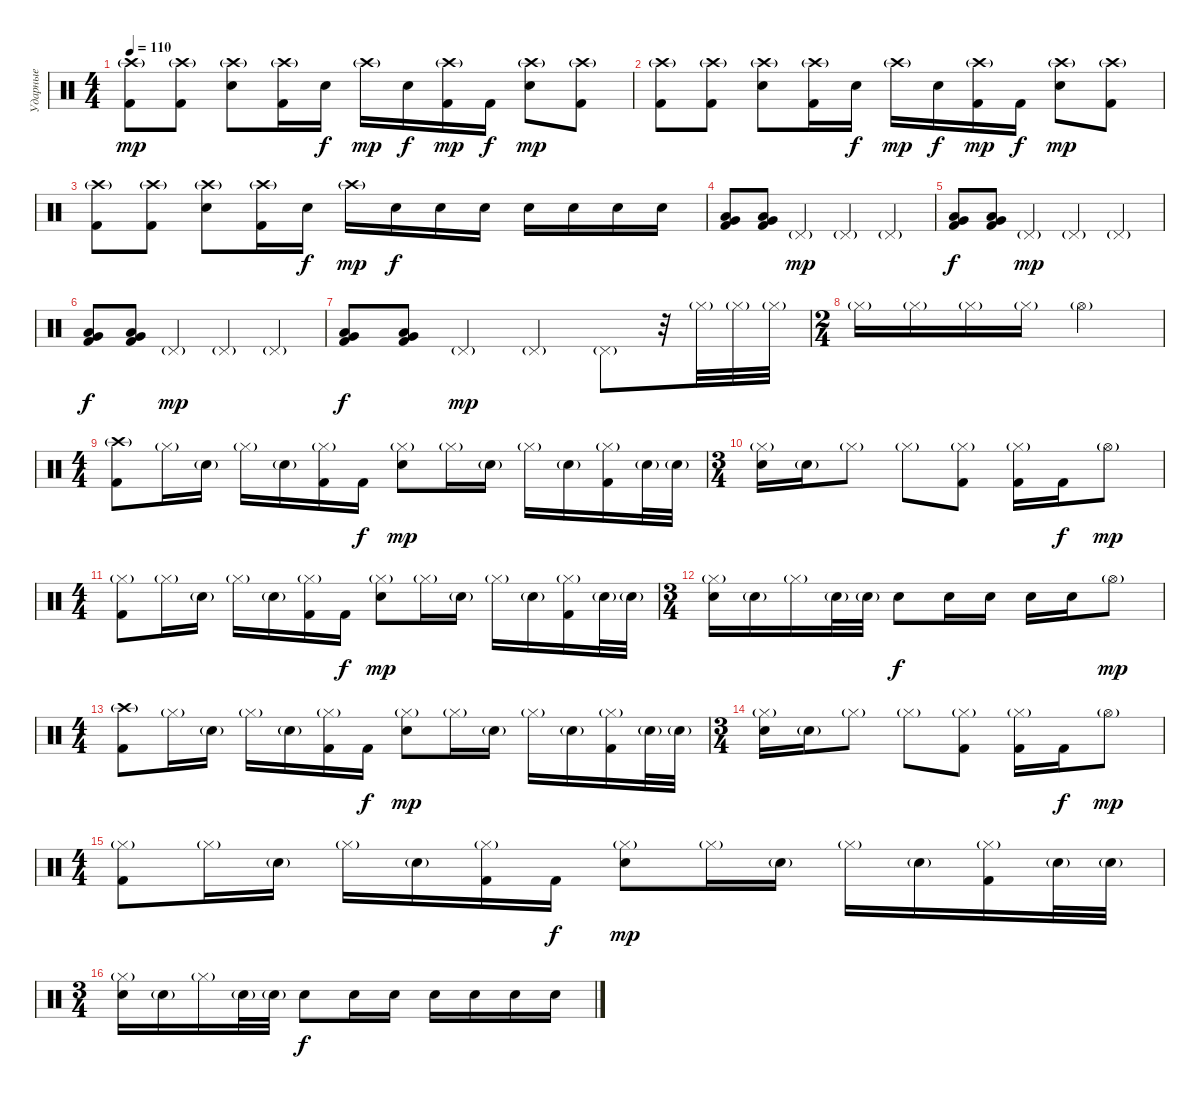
\track ("Ударные" "Ударные") {instrument percussion}
\staff {score}
\articulation defaults
\ts (4 4)
\tempo 110
\clef neutral
\ks c
("Crash high (hit)"{g} "Kick (hit) 2").8{dy mp} ("Crash high (hit)"{g} "Kick (hit) 2").8 ("Crash high (hit)"{g} "Electric Snare (hit)").8 ("Crash high (hit)"{g} "Kick (hit) 2").16 "Electric Snare (hit)".16{dy f} "Crash high (hit)"{g}.16{dy mp} "Electric Snare (hit)".16{dy f} ("Crash high (hit)"{g} "Kick (hit) 2").16{dy mp} "Kick (hit) 2".16{dy f} ("Crash high (hit)"{g} "Electric Snare (hit)").8{dy mp} ("Crash high (hit)"{g} "Kick (hit) 2").8 |
("Crash high (hit)"{g} "Kick (hit) 2").8 ("Crash high (hit)"{g} "Kick (hit) 2").8 ("Crash high (hit)"{g} "Electric Snare (hit)").8 ("Crash high (hit)"{g} "Kick (hit) 2").16 "Electric Snare (hit)".16{dy f} "Crash high (hit)"{g}.16{dy mp} "Electric Snare (hit)".16{dy f} ("Crash high (hit)"{g} "Kick (hit) 2").16{dy mp} "Kick (hit) 2".16{dy f} ("Crash high (hit)"{g} "Electric Snare (hit)").8{dy mp} ("Crash high (hit)"{g} "Kick (hit) 2").8 |
("Crash high (hit)"{g} "Kick (hit) 2").8 ("Crash high (hit)"{g} "Kick (hit) 2").8 ("Crash high (hit)"{g} "Electric Snare (hit)").8 ("Crash high (hit)"{g} "Kick (hit) 2").16 "Electric Snare (hit)".16{dy f} "Crash high (hit)"{g}.16{dy mp} "Electric Snare (hit)".16{dy f} "Electric Snare (hit)".16 "Electric Snare (hit)".16 "Electric Snare (hit)".16 "Electric Snare (hit)".16 "Electric Snare (hit)".16 "Electric Snare (hit)".16 |
("Very Low Tom (hit)" "Low Tom (hit)" "Kick (hit) 2").8 ("Very Low Tom (hit)" "Low Tom (hit)" "Kick (hit) 2").8 "Pedal Hi-Hat (hit)"{g}.4{dy mp} "Pedal Hi-Hat (hit)"{g}.4 "Pedal Hi-Hat (hit)"{g}.4 |
("Very Low Tom (hit)" "Low Tom (hit)" "Kick (hit) 2").8{dy f} ("Very Low Tom (hit)" "Low Tom (hit)" "Kick (hit) 2").8 "Pedal Hi-Hat (hit)"{g}.4{dy mp} "Pedal Hi-Hat (hit)"{g}.4 "Pedal Hi-Hat (hit)"{g}.4 |
("Very Low Tom (hit)" "Low Tom (hit)" "Kick (hit) 2").8{dy f} ("Very Low Tom (hit)" "Low Tom (hit)" "Kick (hit) 2").8 "Pedal Hi-Hat (hit)"{g}.4{dy mp} "Pedal Hi-Hat (hit)"{g}.4 "Pedal Hi-Hat (hit)"{g}.4 |
("Very Low Tom (hit)" "Low Tom (hit)" "Kick (hit) 2").8{dy f} ("Very Low Tom (hit)" "Low Tom (hit)" "Kick (hit) 2").8 "Pedal Hi-Hat (hit)"{g}.4{dy mp} "Pedal Hi-Hat (hit)"{g}.4 "Pedal Hi-Hat (hit)"{g}.8 r.32 "Hi-Hat (closed)"{g}.32 "Hi-Hat (closed)"{g}.32 "Hi-Hat (closed)"{g}.32 |
\ts (2 4)
"Hi-Hat (closed)"{g}.16 "Hi-Hat (closed)"{g}.16 "Hi-Hat (closed)"{g}.16 "Hi-Hat (closed)"{g}.16 "Hi-Hat (open)"{g}.4 |
\ts (4 4)
("Crash high (hit)"{g} "Kick (hit) 2").8 "Hi-Hat (closed)"{g}.16 "Electric Snare (hit)"{g}.16 "Hi-Hat (closed)"{g}.16 "Electric Snare (hit)"{g}.16 ("Hi-Hat (closed)"{g} "Kick (hit) 2").16 "Kick (hit) 2".16{dy f} ("Hi-Hat (closed)"{g} "Electric Snare (hit)").8{dy mp} "Hi-Hat (closed)"{g}.16 "Electric Snare (hit)"{g}.16 "Hi-Hat (closed)"{g}.16 "Electric Snare (hit)"{g}.16 ("Hi-Hat (closed)"{g} "Kick (hit) 2").16 "Electric Snare (hit)"{g}.32 "Electric Snare (hit)"{g}.32 |
\ts (3 4)
("Hi-Hat (closed)"{g} "Electric Snare (hit)").16 "Electric Snare (hit)"{g}.16 "Hi-Hat (closed)"{g}.8 "Hi-Hat (closed)"{g}.8 ("Hi-Hat (closed)"{g} "Kick (hit) 2").8 ("Hi-Hat (closed)"{g} "Kick (hit) 2").16 "Kick (hit) 2".16{dy f} "Hi-Hat (open)"{g}.8{dy mp} |
\ts (4 4)
("Hi-Hat (closed)"{g} "Kick (hit) 2").8 "Hi-Hat (closed)"{g}.16 "Electric Snare (hit)"{g}.16 "Hi-Hat (closed)"{g}.16 "Electric Snare (hit)"{g}.16 ("Hi-Hat (closed)"{g} "Kick (hit) 2").16 "Kick (hit) 2".16{dy f} ("Hi-Hat (closed)"{g} "Electric Snare (hit)").8{dy mp} "Hi-Hat (closed)"{g}.16 "Electric Snare (hit)"{g}.16 "Hi-Hat (closed)"{g}.16 "Electric Snare (hit)"{g}.16 ("Hi-Hat (closed)"{g} "Kick (hit) 2").16 "Electric Snare (hit)"{g}.32 "Electric Snare (hit)"{g}.32 |
\ts (3 4)
("Hi-Hat (closed)"{g} "Electric Snare (hit)").16 "Electric Snare (hit)"{g}.16 "Hi-Hat (closed)"{g}.16 "Electric Snare (hit)"{g}.32 "Electric Snare (hit)"{g}.32 "Electric Snare (hit)".8{dy f} "Electric Snare (hit)".16 "Electric Snare (hit)".16 "Electric Snare (hit)".16 "Electric Snare (hit)".16 "Hi-Hat (open)"{g}.8{dy mp} |
\ts (4 4)
("Crash high (hit)"{g} "Kick (hit) 2").8 "Hi-Hat (closed)"{g}.16 "Electric Snare (hit)"{g}.16 "Hi-Hat (closed)"{g}.16 "Electric Snare (hit)"{g}.16 ("Hi-Hat (closed)"{g} "Kick (hit) 2").16 "Kick (hit) 2".16{dy f} ("Hi-Hat (closed)"{g} "Electric Snare (hit)").8{dy mp} "Hi-Hat (closed)"{g}.16 "Electric Snare (hit)"{g}.16 "Hi-Hat (closed)"{g}.16 "Electric Snare (hit)"{g}.16 ("Hi-Hat (closed)"{g} "Kick (hit) 2").16 "Electric Snare (hit)"{g}.32 "Electric Snare (hit)"{g}.32 |
\ts (3 4)
("Hi-Hat (closed)"{g} "Electric Snare (hit)").16 "Electric Snare (hit)"{g}.16 "Hi-Hat (closed)"{g}.8 "Hi-Hat (closed)"{g}.8 ("Hi-Hat (closed)"{g} "Kick (hit) 2").8 ("Hi-Hat (closed)"{g} "Kick (hit) 2").16 "Kick (hit) 2".16{dy f} "Hi-Hat (open)"{g}.8{dy mp} |
\ts (4 4)
("Hi-Hat (closed)"{g} "Kick (hit) 2").8 "Hi-Hat (closed)"{g}.16 "Electric Snare (hit)"{g}.16 "Hi-Hat (closed)"{g}.16 "Electric Snare (hit)"{g}.16 ("Hi-Hat (closed)"{g} "Kick (hit) 2").16 "Kick (hit) 2".16{dy f} ("Hi-Hat (closed)"{g} "Electric Snare (hit)").8{dy mp} "Hi-Hat (closed)"{g}.16 "Electric Snare (hit)"{g}.16 "Hi-Hat (closed)"{g}.16 "Electric Snare (hit)"{g}.16 ("Hi-Hat (closed)"{g} "Kick (hit) 2").16 "Electric Snare (hit)"{g}.32 "Electric Snare (hit)"{g}.32 |
\ts (3 4)
("Hi-Hat (closed)"{g} "Electric Snare (hit)").16 "Electric Snare (hit)"{g}.16 "Hi-Hat (closed)"{g}.16 "Electric Snare (hit)"{g}.32 "Electric Snare (hit)"{g}.32 "Electric Snare (hit)".8{dy f} "Electric Snare (hit)".16 "Electric Snare (hit)".16 "Electric Snare (hit)".16 "Electric Snare (hit)".16 "Electric Snare (hit)".16 "Electric Snare (hit)".16
